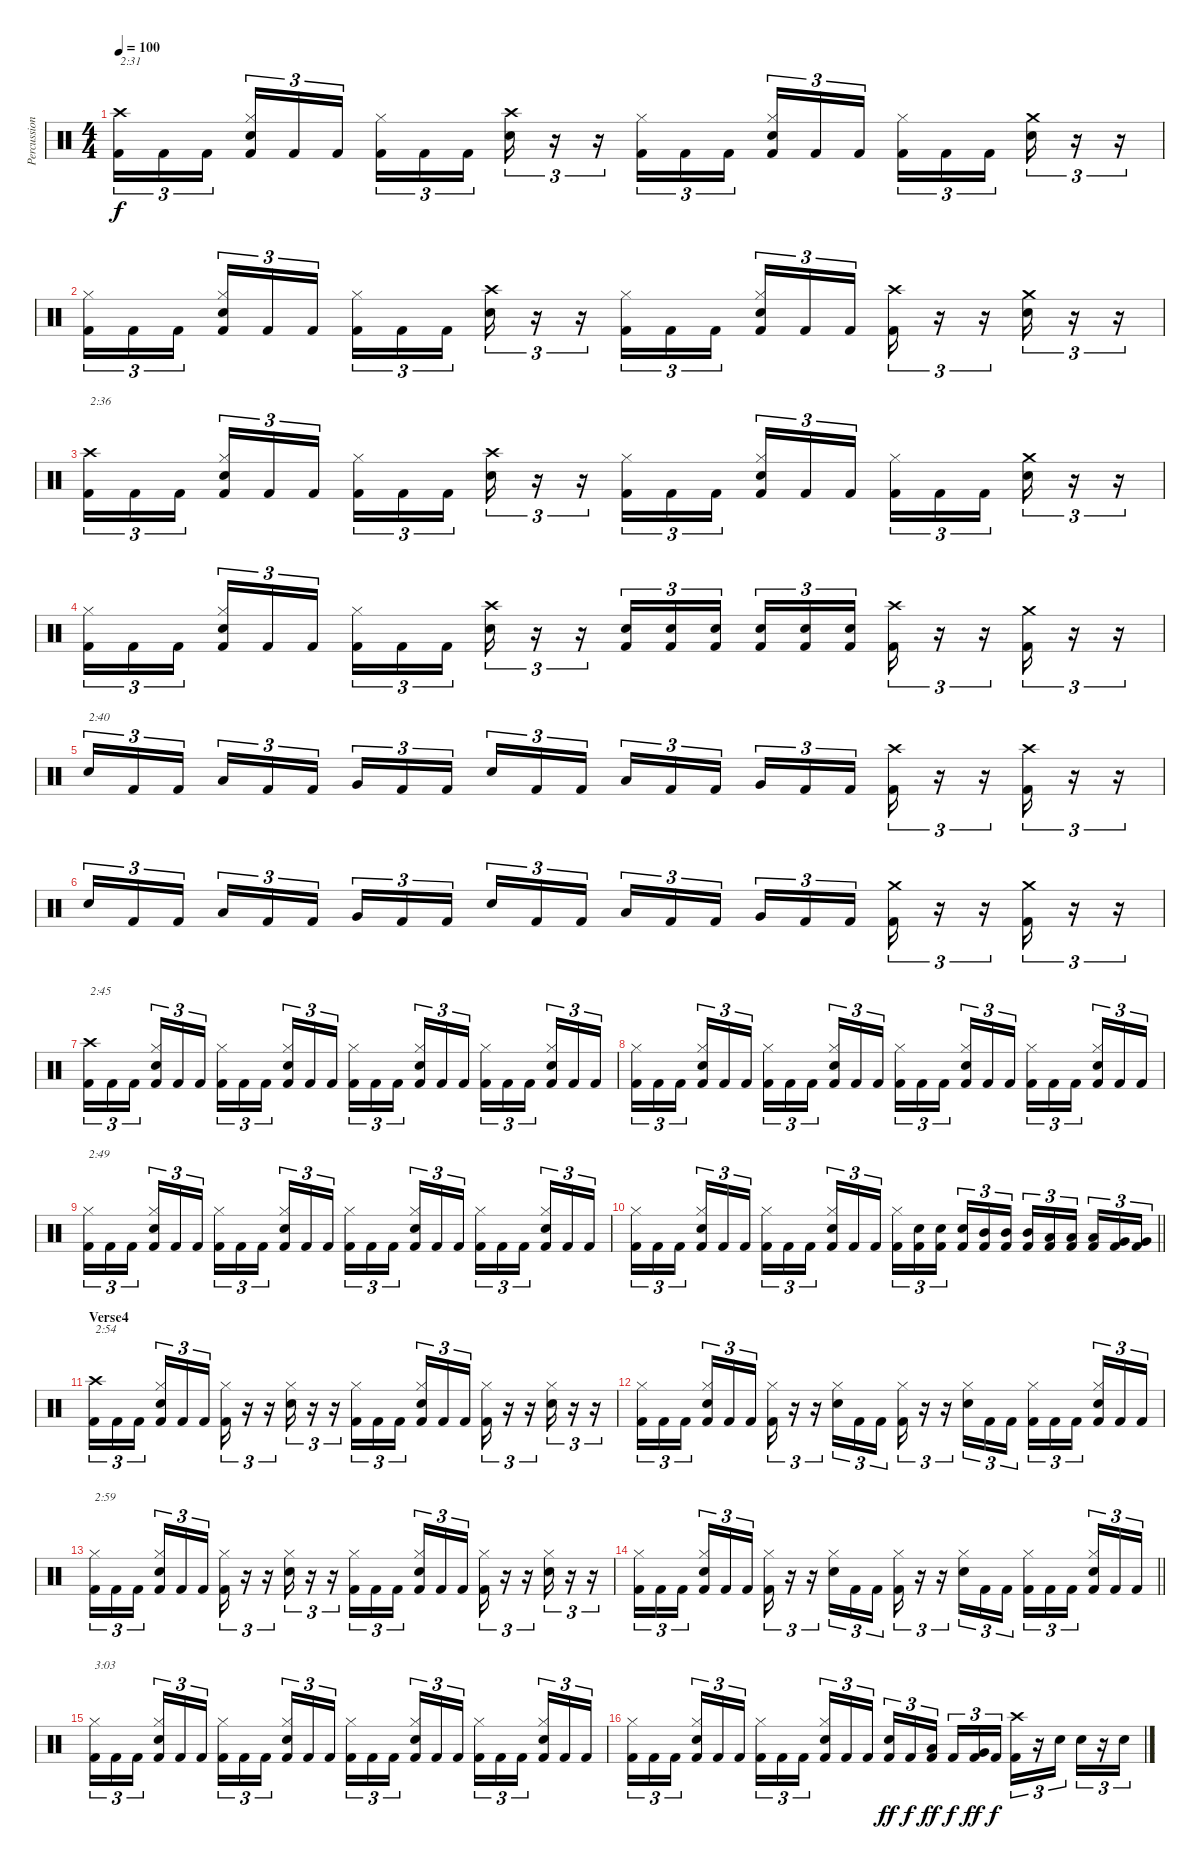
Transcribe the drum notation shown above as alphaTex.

\track ("Percussion" "Percussion") {instrument percussion}
\staff {score}
\articulation defaults
\ts (4 4)
\tempo 100
\clef neutral
\ks c
("Crash high (hit)" "Kick (hit) 2").16{tu (3 2) txt "2:31" dy f} "Kick (hit) 2".16{tu (3 2)} "Kick (hit) 2".16{tu (3 2) beam splitsecondary} ("Hi-Hat (closed)" "Snare (hit) 2" "Kick (hit) 2").16{tu (3 2)} "Kick (hit) 2".16{tu (3 2)} "Kick (hit) 2".16{tu (3 2)} ("Hi-Hat (closed)" "Kick (hit) 2").16{tu (3 2)} "Kick (hit) 2".16{tu (3 2)} "Kick (hit) 2".16{tu (3 2) beam splitsecondary} ("Crash high (hit)" "Snare (hit) 2").16{tu (3 2)} r.16{tu (3 2)} r.16{tu (3 2)} ("Hi-Hat (closed)" "Kick (hit) 2").16{tu (3 2)} "Kick (hit) 2".16{tu (3 2)} "Kick (hit) 2".16{tu (3 2) beam splitsecondary} ("Hi-Hat (closed)" "Snare (hit) 2" "Kick (hit) 2").16{tu (3 2)} "Kick (hit) 2".16{tu (3 2)} "Kick (hit) 2".16{tu (3 2)} ("Hi-Hat (closed)" "Kick (hit) 2").16{tu (3 2)} "Kick (hit) 2".16{tu (3 2)} "Kick (hit) 2".16{tu (3 2) beam splitsecondary} ("Crash medium (hit)" "Snare (hit) 2").16{tu (3 2)} r.16{tu (3 2)} r.16{tu (3 2)} |
("Hi-Hat (closed)" "Kick (hit) 2").16{tu (3 2)} "Kick (hit) 2".16{tu (3 2)} "Kick (hit) 2".16{tu (3 2) beam splitsecondary} ("Hi-Hat (closed)" "Snare (hit) 2" "Kick (hit) 2").16{tu (3 2)} "Kick (hit) 2".16{tu (3 2)} "Kick (hit) 2".16{tu (3 2)} ("Hi-Hat (closed)" "Kick (hit) 2").16{tu (3 2)} "Kick (hit) 2".16{tu (3 2)} "Kick (hit) 2".16{tu (3 2) beam splitsecondary} ("Crash high (hit)" "Snare (hit) 2").16{tu (3 2)} r.16{tu (3 2)} r.16{tu (3 2)} ("Hi-Hat (closed)" "Kick (hit) 2").16{tu (3 2)} "Kick (hit) 2".16{tu (3 2)} "Kick (hit) 2".16{tu (3 2) beam splitsecondary} ("Hi-Hat (closed)" "Snare (hit) 2" "Kick (hit) 2").16{tu (3 2)} "Kick (hit) 2".16{tu (3 2)} "Kick (hit) 2".16{tu (3 2)} ("Crash high (hit)" "Kick (hit) 2").16{tu (3 2)} r.16{tu (3 2)} r.16{tu (3 2)} ("Crash medium (hit)" "Snare (hit) 2").16{tu (3 2)} r.16{tu (3 2)} r.16{tu (3 2)} |
("Crash high (hit)" "Kick (hit) 2").16{tu (3 2) txt "2:36"} "Kick (hit) 2".16{tu (3 2)} "Kick (hit) 2".16{tu (3 2) beam splitsecondary} ("Hi-Hat (closed)" "Snare (hit) 2" "Kick (hit) 2").16{tu (3 2)} "Kick (hit) 2".16{tu (3 2)} "Kick (hit) 2".16{tu (3 2)} ("Hi-Hat (closed)" "Kick (hit) 2").16{tu (3 2)} "Kick (hit) 2".16{tu (3 2)} "Kick (hit) 2".16{tu (3 2) beam splitsecondary} ("Crash high (hit)" "Snare (hit) 2").16{tu (3 2)} r.16{tu (3 2)} r.16{tu (3 2)} ("Hi-Hat (closed)" "Kick (hit) 2").16{tu (3 2)} "Kick (hit) 2".16{tu (3 2)} "Kick (hit) 2".16{tu (3 2) beam splitsecondary} ("Hi-Hat (closed)" "Snare (hit) 2" "Kick (hit) 2").16{tu (3 2)} "Kick (hit) 2".16{tu (3 2)} "Kick (hit) 2".16{tu (3 2)} ("Hi-Hat (closed)" "Kick (hit) 2").16{tu (3 2)} "Kick (hit) 2".16{tu (3 2)} "Kick (hit) 2".16{tu (3 2) beam splitsecondary} ("Crash medium (hit)" "Snare (hit) 2").16{tu (3 2)} r.16{tu (3 2)} r.16{tu (3 2)} |
("Hi-Hat (closed)" "Kick (hit) 2").16{tu (3 2)} "Kick (hit) 2".16{tu (3 2)} "Kick (hit) 2".16{tu (3 2) beam splitsecondary} ("Hi-Hat (closed)" "Snare (hit) 2" "Kick (hit) 2").16{tu (3 2)} "Kick (hit) 2".16{tu (3 2)} "Kick (hit) 2".16{tu (3 2)} ("Hi-Hat (closed)" "Kick (hit) 2").16{tu (3 2)} "Kick (hit) 2".16{tu (3 2)} "Kick (hit) 2".16{tu (3 2) beam splitsecondary} ("Crash high (hit)" "Snare (hit) 2").16{tu (3 2)} r.16{tu (3 2)} r.16{tu (3 2)} ("Snare (hit) 2" "Kick (hit) 2").16{tu (3 2)} ("Snare (hit) 2" "Kick (hit) 2").16{tu (3 2)} ("Snare (hit) 2" "Kick (hit) 2").16{tu (3 2) beam splitsecondary} ("Snare (hit) 2" "Kick (hit) 2").16{tu (3 2)} ("Snare (hit) 2" "Kick (hit) 2").16{tu (3 2)} ("Snare (hit) 2" "Kick (hit) 2").16{tu (3 2)} ("Crash high (hit)" "Kick (hit) 2").16{tu (3 2)} r.16{tu (3 2)} r.16{tu (3 2)} ("Crash medium (hit)" "Kick (hit) 2").16{tu (3 2)} r.16{tu (3 2)} r.16{tu (3 2)} |
"Snare (hit) 2".16{tu (3 2) txt "2:40"} "Kick (hit) 2".16{tu (3 2)} "Kick (hit) 2".16{tu (3 2) beam splitsecondary} "Low Tom (hit)".16{tu (3 2)} "Kick (hit) 2".16{tu (3 2)} "Kick (hit) 2".16{tu (3 2)} "Very Low Tom (hit)".16{tu (3 2)} "Kick (hit) 2".16{tu (3 2)} "Kick (hit) 2".16{tu (3 2) beam splitsecondary} "Snare (hit) 2".16{tu (3 2)} "Kick (hit) 2".16{tu (3 2)} "Kick (hit) 2".16{tu (3 2)} "Low Tom (hit)".16{tu (3 2)} "Kick (hit) 2".16{tu (3 2)} "Kick (hit) 2".16{tu (3 2) beam splitsecondary} "Very Low Tom (hit)".16{tu (3 2)} "Kick (hit) 2".16{tu (3 2)} "Kick (hit) 2".16{tu (3 2)} ("Crash high (hit)" "Kick (hit) 2").16{tu (3 2)} r.16{tu (3 2)} r.16{tu (3 2)} ("Crash high (hit)" "Kick (hit) 2").16{tu (3 2)} r.16{tu (3 2)} r.16{tu (3 2)} |
"Snare (hit) 2".16{tu (3 2)} "Kick (hit) 2".16{tu (3 2)} "Kick (hit) 2".16{tu (3 2) beam splitsecondary} "Low Tom (hit)".16{tu (3 2)} "Kick (hit) 2".16{tu (3 2)} "Kick (hit) 2".16{tu (3 2)} "Very Low Tom (hit)".16{tu (3 2)} "Kick (hit) 2".16{tu (3 2)} "Kick (hit) 2".16{tu (3 2) beam splitsecondary} "Snare (hit) 2".16{tu (3 2)} "Kick (hit) 2".16{tu (3 2)} "Kick (hit) 2".16{tu (3 2)} "Low Tom (hit)".16{tu (3 2)} "Kick (hit) 2".16{tu (3 2)} "Kick (hit) 2".16{tu (3 2) beam splitsecondary} "Very Low Tom (hit)".16{tu (3 2)} "Kick (hit) 2".16{tu (3 2)} "Kick (hit) 2".16{tu (3 2)} ("Crash medium (hit)" "Kick (hit) 2").16{tu (3 2)} r.16{tu (3 2)} r.16{tu (3 2)} ("Crash medium (hit)" "Kick (hit) 2").16{tu (3 2)} r.16{tu (3 2)} r.16{tu (3 2)} |
("Crash high (hit)" "Kick (hit) 2").16{tu (3 2) txt "2:45"} "Kick (hit) 2".16{tu (3 2)} "Kick (hit) 2".16{tu (3 2) beam splitsecondary} ("Hi-Hat (closed)" "Snare (hit) 2" "Kick (hit) 2").16{tu (3 2)} "Kick (hit) 2".16{tu (3 2)} "Kick (hit) 2".16{tu (3 2)} ("Hi-Hat (closed)" "Kick (hit) 2").16{tu (3 2)} "Kick (hit) 2".16{tu (3 2)} "Kick (hit) 2".16{tu (3 2) beam splitsecondary} ("Hi-Hat (closed)" "Snare (hit) 2" "Kick (hit) 2").16{tu (3 2)} "Kick (hit) 2".16{tu (3 2)} "Kick (hit) 2".16{tu (3 2)} ("Hi-Hat (closed)" "Kick (hit) 2").16{tu (3 2)} "Kick (hit) 2".16{tu (3 2)} "Kick (hit) 2".16{tu (3 2) beam splitsecondary} ("Hi-Hat (closed)" "Snare (hit) 2" "Kick (hit) 2").16{tu (3 2)} "Kick (hit) 2".16{tu (3 2)} "Kick (hit) 2".16{tu (3 2)} ("Hi-Hat (closed)" "Kick (hit) 2").16{tu (3 2)} "Kick (hit) 2".16{tu (3 2)} "Kick (hit) 2".16{tu (3 2) beam splitsecondary} ("Hi-Hat (closed)" "Snare (hit) 2" "Kick (hit) 2").16{tu (3 2)} "Kick (hit) 2".16{tu (3 2)} "Kick (hit) 2".16{tu (3 2)} |
("Hi-Hat (closed)" "Kick (hit) 2").16{tu (3 2)} "Kick (hit) 2".16{tu (3 2)} "Kick (hit) 2".16{tu (3 2) beam splitsecondary} ("Hi-Hat (closed)" "Snare (hit) 2" "Kick (hit) 2").16{tu (3 2)} "Kick (hit) 2".16{tu (3 2)} "Kick (hit) 2".16{tu (3 2)} ("Hi-Hat (closed)" "Kick (hit) 2").16{tu (3 2)} "Kick (hit) 2".16{tu (3 2)} "Kick (hit) 2".16{tu (3 2) beam splitsecondary} ("Hi-Hat (closed)" "Snare (hit) 2" "Kick (hit) 2").16{tu (3 2)} "Kick (hit) 2".16{tu (3 2)} "Kick (hit) 2".16{tu (3 2)} ("Hi-Hat (closed)" "Kick (hit) 2").16{tu (3 2)} "Kick (hit) 2".16{tu (3 2)} "Kick (hit) 2".16{tu (3 2) beam splitsecondary} ("Hi-Hat (closed)" "Snare (hit) 2" "Kick (hit) 2").16{tu (3 2)} "Kick (hit) 2".16{tu (3 2)} "Kick (hit) 2".16{tu (3 2)} ("Hi-Hat (closed)" "Kick (hit) 2").16{tu (3 2)} "Kick (hit) 2".16{tu (3 2)} "Kick (hit) 2".16{tu (3 2) beam splitsecondary} ("Hi-Hat (closed)" "Snare (hit) 2" "Kick (hit) 2").16{tu (3 2)} "Kick (hit) 2".16{tu (3 2)} "Kick (hit) 2".16{tu (3 2)} |
("Hi-Hat (closed)" "Kick (hit) 2").16{tu (3 2) txt "2:49"} "Kick (hit) 2".16{tu (3 2)} "Kick (hit) 2".16{tu (3 2) beam splitsecondary} ("Hi-Hat (closed)" "Snare (hit) 2" "Kick (hit) 2").16{tu (3 2)} "Kick (hit) 2".16{tu (3 2)} "Kick (hit) 2".16{tu (3 2)} ("Hi-Hat (closed)" "Kick (hit) 2").16{tu (3 2)} "Kick (hit) 2".16{tu (3 2)} "Kick (hit) 2".16{tu (3 2) beam splitsecondary} ("Hi-Hat (closed)" "Snare (hit) 2" "Kick (hit) 2").16{tu (3 2)} "Kick (hit) 2".16{tu (3 2)} "Kick (hit) 2".16{tu (3 2)} ("Hi-Hat (closed)" "Kick (hit) 2").16{tu (3 2)} "Kick (hit) 2".16{tu (3 2)} "Kick (hit) 2".16{tu (3 2) beam splitsecondary} ("Hi-Hat (closed)" "Snare (hit) 2" "Kick (hit) 2").16{tu (3 2)} "Kick (hit) 2".16{tu (3 2)} "Kick (hit) 2".16{tu (3 2)} ("Hi-Hat (closed)" "Kick (hit) 2").16{tu (3 2)} "Kick (hit) 2".16{tu (3 2)} "Kick (hit) 2".16{tu (3 2) beam splitsecondary} ("Hi-Hat (closed)" "Snare (hit) 2" "Kick (hit) 2").16{tu (3 2)} "Kick (hit) 2".16{tu (3 2)} "Kick (hit) 2".16{tu (3 2)} |
\barLineRight lightlight
("Hi-Hat (closed)" "Kick (hit) 2").16{tu (3 2)} "Kick (hit) 2".16{tu (3 2)} "Kick (hit) 2".16{tu (3 2) beam splitsecondary} ("Hi-Hat (closed)" "Snare (hit) 2" "Kick (hit) 2").16{tu (3 2)} "Kick (hit) 2".16{tu (3 2)} "Kick (hit) 2".16{tu (3 2)} ("Hi-Hat (closed)" "Kick (hit) 2").16{tu (3 2)} "Kick (hit) 2".16{tu (3 2)} "Kick (hit) 2".16{tu (3 2) beam splitsecondary} ("Hi-Hat (closed)" "Snare (hit) 2" "Kick (hit) 2").16{tu (3 2)} "Kick (hit) 2".16{tu (3 2)} "Kick (hit) 2".16{tu (3 2)} ("Hi-Hat (closed)" "Kick (hit) 2").16{tu (3 2)} ("Snare (hit) 2" "Kick (hit) 2").16{tu (3 2)} ("Snare (hit) 2" "Kick (hit) 2").16{tu (3 2) beam splitsecondary} ("Snare (hit) 2" "Kick (hit) 2").16{tu (3 2)} ("Mid Tom (hit)" "Kick (hit) 2").16{tu (3 2)} ("Mid Tom (hit)" "Kick (hit) 2").16{tu (3 2)} ("Mid Tom (hit)" "Kick (hit) 2").16{tu (3 2)} ("Low Tom (hit)" "Kick (hit) 2").16{tu (3 2)} ("Low Tom (hit)" "Kick (hit) 2").16{tu (3 2) beam splitsecondary} ("Low Tom (hit)" "Kick (hit) 2").16{tu (3 2)} ("Very Low Tom (hit)" "Kick (hit) 2").16{tu (3 2)} ("Very Low Tom (hit)" "Kick (hit) 2").16{tu (3 2)} |
\section ("" "Verse4")
("Crash high (hit)" "Kick (hit) 2").16{tu (3 2) txt "2:54"} "Kick (hit) 2".16{tu (3 2)} "Kick (hit) 2".16{tu (3 2) beam splitsecondary} ("Hi-Hat (closed)" "Snare (hit) 2" "Kick (hit) 2").16{tu (3 2)} "Kick (hit) 2".16{tu (3 2)} "Kick (hit) 2".16{tu (3 2)} ("Hi-Hat (closed)" "Kick (hit) 2").16{tu (3 2)} r.16{tu (3 2)} r.16{tu (3 2)} ("Hi-Hat (closed)" "Snare (hit) 2").16{tu (3 2)} r.16{tu (3 2)} r.16{tu (3 2)} ("Hi-Hat (closed)" "Kick (hit) 2").16{tu (3 2)} "Kick (hit) 2".16{tu (3 2)} "Kick (hit) 2".16{tu (3 2) beam splitsecondary} ("Hi-Hat (closed)" "Snare (hit) 2" "Kick (hit) 2").16{tu (3 2)} "Kick (hit) 2".16{tu (3 2)} "Kick (hit) 2".16{tu (3 2)} ("Hi-Hat (closed)" "Kick (hit) 2").16{tu (3 2)} r.16{tu (3 2)} r.16{tu (3 2)} ("Hi-Hat (closed)" "Snare (hit) 2").16{tu (3 2)} r.16{tu (3 2)} r.16{tu (3 2)} |
("Hi-Hat (closed)" "Kick (hit) 2").16{tu (3 2)} "Kick (hit) 2".16{tu (3 2)} "Kick (hit) 2".16{tu (3 2) beam splitsecondary} ("Hi-Hat (closed)" "Snare (hit) 2" "Kick (hit) 2").16{tu (3 2)} "Kick (hit) 2".16{tu (3 2)} "Kick (hit) 2".16{tu (3 2)} ("Hi-Hat (closed)" "Kick (hit) 2").16{tu (3 2)} r.16{tu (3 2)} r.16{tu (3 2)} ("Hi-Hat (closed)" "Snare (hit) 2").16{tu (3 2)} "Kick (hit) 2".16{tu (3 2)} "Kick (hit) 2".16{tu (3 2)} ("Hi-Hat (closed)" "Kick (hit) 2").16{tu (3 2)} r.16{tu (3 2)} r.16{tu (3 2)} ("Hi-Hat (closed)" "Snare (hit) 2").16{tu (3 2)} "Kick (hit) 2".16{tu (3 2)} "Kick (hit) 2".16{tu (3 2)} ("Hi-Hat (closed)" "Kick (hit) 2").16{tu (3 2)} "Kick (hit) 2".16{tu (3 2)} "Kick (hit) 2".16{tu (3 2) beam splitsecondary} ("Hi-Hat (closed)" "Snare (hit) 2" "Kick (hit) 2").16{tu (3 2)} "Kick (hit) 2".16{tu (3 2)} "Kick (hit) 2".16{tu (3 2)} |
("Hi-Hat (closed)" "Kick (hit) 2").16{tu (3 2) txt "2:59"} "Kick (hit) 2".16{tu (3 2)} "Kick (hit) 2".16{tu (3 2) beam splitsecondary} ("Hi-Hat (closed)" "Snare (hit) 2" "Kick (hit) 2").16{tu (3 2)} "Kick (hit) 2".16{tu (3 2)} "Kick (hit) 2".16{tu (3 2)} ("Hi-Hat (closed)" "Kick (hit) 2").16{tu (3 2)} r.16{tu (3 2)} r.16{tu (3 2)} ("Hi-Hat (closed)" "Snare (hit) 2").16{tu (3 2)} r.16{tu (3 2)} r.16{tu (3 2)} ("Hi-Hat (closed)" "Kick (hit) 2").16{tu (3 2)} "Kick (hit) 2".16{tu (3 2)} "Kick (hit) 2".16{tu (3 2) beam splitsecondary} ("Hi-Hat (closed)" "Snare (hit) 2" "Kick (hit) 2").16{tu (3 2)} "Kick (hit) 2".16{tu (3 2)} "Kick (hit) 2".16{tu (3 2)} ("Hi-Hat (closed)" "Kick (hit) 2").16{tu (3 2)} r.16{tu (3 2)} r.16{tu (3 2)} ("Hi-Hat (closed)" "Snare (hit) 2").16{tu (3 2)} r.16{tu (3 2)} r.16{tu (3 2)} |
\barLineRight lightlight
("Hi-Hat (closed)" "Kick (hit) 2").16{tu (3 2)} "Kick (hit) 2".16{tu (3 2)} "Kick (hit) 2".16{tu (3 2) beam splitsecondary} ("Hi-Hat (closed)" "Snare (hit) 2" "Kick (hit) 2").16{tu (3 2)} "Kick (hit) 2".16{tu (3 2)} "Kick (hit) 2".16{tu (3 2)} ("Hi-Hat (closed)" "Kick (hit) 2").16{tu (3 2)} r.16{tu (3 2)} r.16{tu (3 2)} ("Hi-Hat (closed)" "Snare (hit) 2").16{tu (3 2)} "Kick (hit) 2".16{tu (3 2)} "Kick (hit) 2".16{tu (3 2)} ("Hi-Hat (closed)" "Kick (hit) 2").16{tu (3 2)} r.16{tu (3 2)} r.16{tu (3 2)} ("Hi-Hat (closed)" "Snare (hit) 2").16{tu (3 2)} "Kick (hit) 2".16{tu (3 2)} "Kick (hit) 2".16{tu (3 2)} ("Hi-Hat (closed)" "Kick (hit) 2").16{tu (3 2)} "Kick (hit) 2".16{tu (3 2)} "Kick (hit) 2".16{tu (3 2) beam splitsecondary} ("Hi-Hat (closed)" "Snare (hit) 2" "Kick (hit) 2").16{tu (3 2)} "Kick (hit) 2".16{tu (3 2)} "Kick (hit) 2".16{tu (3 2)} |
("Hi-Hat (closed)" "Kick (hit) 2").16{tu (3 2) txt "3:03"} "Kick (hit) 2".16{tu (3 2)} "Kick (hit) 2".16{tu (3 2) beam splitsecondary} ("Hi-Hat (closed)" "Snare (hit) 2" "Kick (hit) 2").16{tu (3 2)} "Kick (hit) 2".16{tu (3 2)} "Kick (hit) 2".16{tu (3 2)} ("Hi-Hat (closed)" "Kick (hit) 2").16{tu (3 2)} "Kick (hit) 2".16{tu (3 2)} "Kick (hit) 2".16{tu (3 2) beam splitsecondary} ("Hi-Hat (closed)" "Snare (hit) 2" "Kick (hit) 2").16{tu (3 2)} "Kick (hit) 2".16{tu (3 2)} "Kick (hit) 2".16{tu (3 2)} ("Hi-Hat (closed)" "Kick (hit) 2").16{tu (3 2)} "Kick (hit) 2".16{tu (3 2)} "Kick (hit) 2".16{tu (3 2) beam splitsecondary} ("Hi-Hat (closed)" "Snare (hit) 2" "Kick (hit) 2").16{tu (3 2)} "Kick (hit) 2".16{tu (3 2)} "Kick (hit) 2".16{tu (3 2)} ("Hi-Hat (closed)" "Kick (hit) 2").16{tu (3 2)} "Kick (hit) 2".16{tu (3 2)} "Kick (hit) 2".16{tu (3 2) beam splitsecondary} ("Hi-Hat (closed)" "Snare (hit) 2" "Kick (hit) 2").16{tu (3 2)} "Kick (hit) 2".16{tu (3 2)} "Kick (hit) 2".16{tu (3 2)} |
("Hi-Hat (closed)" "Kick (hit) 2").16{tu (3 2)} "Kick (hit) 2".16{tu (3 2)} "Kick (hit) 2".16{tu (3 2) beam splitsecondary} ("Hi-Hat (closed)" "Snare (hit) 2" "Kick (hit) 2").16{tu (3 2)} "Kick (hit) 2".16{tu (3 2)} "Kick (hit) 2".16{tu (3 2)} ("Hi-Hat (closed)" "Kick (hit) 2").16{tu (3 2)} "Kick (hit) 2".16{tu (3 2)} "Kick (hit) 2".16{tu (3 2) beam splitsecondary} ("Hi-Hat (closed)" "Snare (hit) 2" "Kick (hit) 2").16{tu (3 2)} "Kick (hit) 2".16{tu (3 2)} "Kick (hit) 2".16{tu (3 2)} ("Snare (hit) 2" "Kick (hit) 2").16{tu (3 2) dy ff} "Kick (hit) 2".16{tu (3 2) dy f} ("Low Tom (hit)" "Kick (hit) 2").16{tu (3 2) dy ff beam splitsecondary} "Kick (hit) 2".16{tu (3 2) dy f} ("Very Low Tom (hit)" "Kick (hit) 2").16{tu (3 2) dy ff} "Kick (hit) 2".16{tu (3 2) dy f} ("Crash high (hit)" "Kick (hit) 2").16{tu (3 2)} r.16{tu (3 2)} "Snare (hit) 2".16{tu (3 2)} "Snare (hit) 2".16{tu (3 2)} r.16{tu (3 2)} "Snare (hit) 2".16{tu (3 2)}
